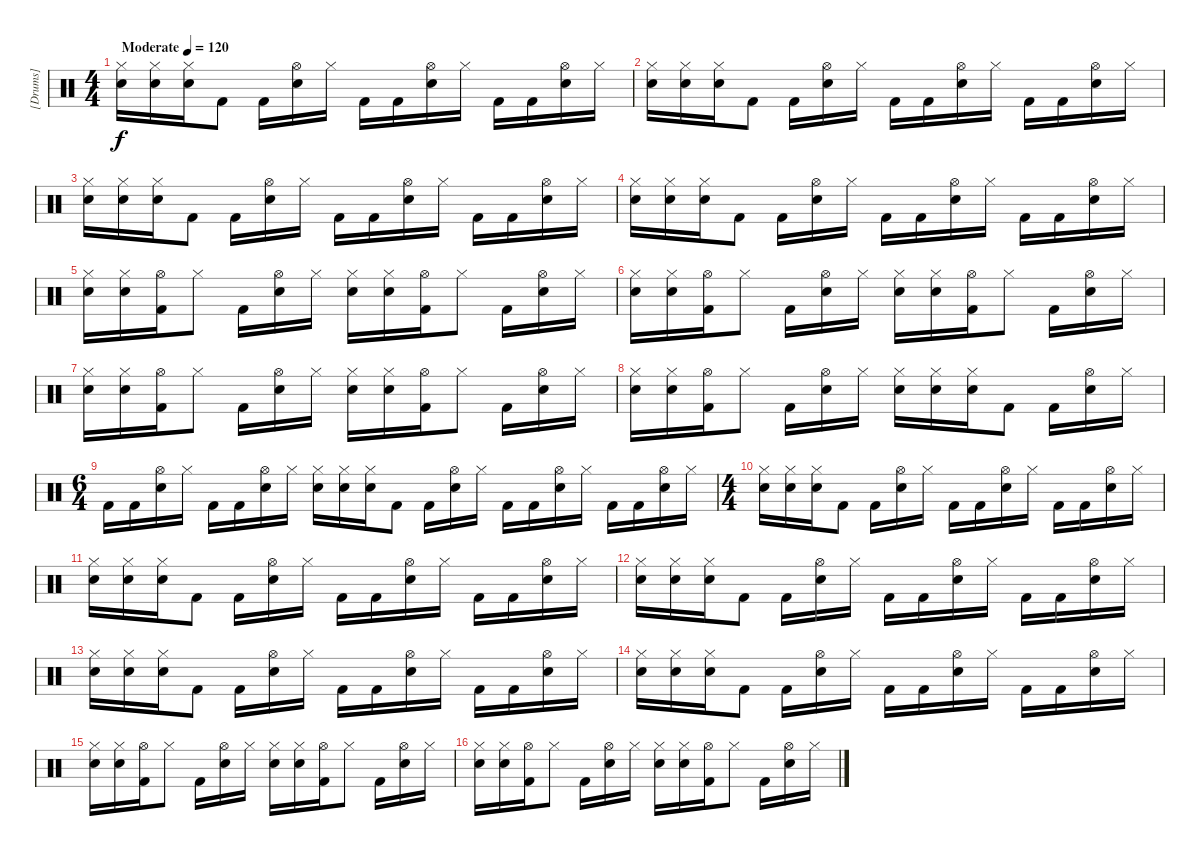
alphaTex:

\track ("[Drums]" "[Drums]") {instrument percussion}
\staff {score}
\articulation defaults
\ts (4 4)
\tempo (120 "Moderate")
\clef neutral
\ks c
("Hi-Hat (closed)" "Snare (hit) 2").16{dy f} ("Hi-Hat (closed)" "Snare (hit) 2").16 ("Hi-Hat (closed)" "Snare (hit) 2").16 "Kick (hit) 2".8 "Kick (hit) 2".16 ("Hi-Hat (open)" "Electric Snare (hit)").16 "Hi-Hat (closed)".16 "Kick (hit) 2".16 "Kick (hit) 2".16 ("Hi-Hat (open)" "Electric Snare (hit)").16 "Hi-Hat (closed)".16 "Kick (hit) 2".16 "Kick (hit) 2".16 ("Hi-Hat (open)" "Electric Snare (hit)").16 "Hi-Hat (closed)".16 |
("Hi-Hat (closed)" "Snare (hit) 2").16 ("Hi-Hat (closed)" "Snare (hit) 2").16 ("Hi-Hat (closed)" "Snare (hit) 2").16 "Kick (hit) 2".8 "Kick (hit) 2".16 ("Hi-Hat (open)" "Electric Snare (hit)").16 "Hi-Hat (closed)".16 "Kick (hit) 2".16 "Kick (hit) 2".16 ("Hi-Hat (open)" "Electric Snare (hit)").16 "Hi-Hat (closed)".16 "Kick (hit) 2".16 "Kick (hit) 2".16 ("Hi-Hat (open)" "Electric Snare (hit)").16 "Hi-Hat (closed)".16 |
("Hi-Hat (closed)" "Snare (hit) 2").16 ("Hi-Hat (closed)" "Snare (hit) 2").16 ("Hi-Hat (closed)" "Snare (hit) 2").16 "Kick (hit) 2".8 "Kick (hit) 2".16 ("Hi-Hat (open)" "Electric Snare (hit)").16 "Hi-Hat (closed)".16 "Kick (hit) 2".16 "Kick (hit) 2".16 ("Hi-Hat (open)" "Electric Snare (hit)").16 "Hi-Hat (closed)".16 "Kick (hit) 2".16 "Kick (hit) 2".16 ("Hi-Hat (open)" "Electric Snare (hit)").16 "Hi-Hat (closed)".16 |
("Hi-Hat (closed)" "Snare (hit) 2").16 ("Hi-Hat (closed)" "Snare (hit) 2").16 ("Hi-Hat (closed)" "Snare (hit) 2").16 "Kick (hit) 2".8 "Kick (hit) 2".16 ("Hi-Hat (open)" "Electric Snare (hit)").16 "Hi-Hat (closed)".16 "Kick (hit) 2".16 "Kick (hit) 2".16 ("Hi-Hat (open)" "Electric Snare (hit)").16 "Hi-Hat (closed)".16 "Kick (hit) 2".16 "Kick (hit) 2".16 ("Hi-Hat (open)" "Electric Snare (hit)").16 "Hi-Hat (closed)".16 |
("Hi-Hat (closed)" "Electric Snare (hit)").16 ("Hi-Hat (closed)" "Electric Snare (hit)").16 ("Hi-Hat (open)" "Kick (hit) 2").16 "Hi-Hat (closed)".8 "Kick (hit) 2".16 ("Hi-Hat (open)" "Electric Snare (hit)").16 "Hi-Hat (closed)".16 ("Hi-Hat (closed)" "Electric Snare (hit)").16 ("Hi-Hat (closed)" "Electric Snare (hit)").16 ("Hi-Hat (open)" "Kick (hit) 2").16 "Hi-Hat (closed)".8 "Kick (hit) 2".16 ("Hi-Hat (open)" "Electric Snare (hit)").16 "Hi-Hat (closed)".16 |
("Hi-Hat (closed)" "Electric Snare (hit)").16 ("Hi-Hat (closed)" "Electric Snare (hit)").16 ("Hi-Hat (open)" "Kick (hit) 2").16 "Hi-Hat (closed)".8 "Kick (hit) 2".16 ("Hi-Hat (open)" "Electric Snare (hit)").16 "Hi-Hat (closed)".16 ("Hi-Hat (closed)" "Electric Snare (hit)").16 ("Hi-Hat (closed)" "Electric Snare (hit)").16 ("Hi-Hat (open)" "Kick (hit) 2").16 "Hi-Hat (closed)".8 "Kick (hit) 2".16 ("Hi-Hat (open)" "Electric Snare (hit)").16 "Hi-Hat (closed)".16 |
("Hi-Hat (closed)" "Electric Snare (hit)").16 ("Hi-Hat (closed)" "Electric Snare (hit)").16 ("Hi-Hat (open)" "Kick (hit) 2").16 "Hi-Hat (closed)".8 "Kick (hit) 2".16 ("Hi-Hat (open)" "Electric Snare (hit)").16 "Hi-Hat (closed)".16 ("Hi-Hat (closed)" "Electric Snare (hit)").16 ("Hi-Hat (closed)" "Electric Snare (hit)").16 ("Hi-Hat (open)" "Kick (hit) 2").16 "Hi-Hat (closed)".8 "Kick (hit) 2".16 ("Hi-Hat (open)" "Electric Snare (hit)").16 "Hi-Hat (closed)".16 |
("Hi-Hat (closed)" "Electric Snare (hit)").16 ("Hi-Hat (closed)" "Electric Snare (hit)").16 ("Hi-Hat (open)" "Kick (hit) 2").16 "Hi-Hat (closed)".8 "Kick (hit) 2".16 ("Hi-Hat (open)" "Electric Snare (hit)").16 "Hi-Hat (closed)".16 ("Hi-Hat (closed)" "Snare (hit) 2").16 ("Hi-Hat (closed)" "Snare (hit) 2").16 ("Hi-Hat (closed)" "Snare (hit) 2").16 "Kick (hit) 2".8 "Kick (hit) 2".16 ("Hi-Hat (open)" "Electric Snare (hit)").16 "Hi-Hat (closed)".16 |
\ts (6 4)
"Kick (hit) 2".16 "Kick (hit) 2".16 ("Hi-Hat (open)" "Electric Snare (hit)").16 "Hi-Hat (closed)".16 "Kick (hit) 2".16 "Kick (hit) 2".16 ("Hi-Hat (open)" "Electric Snare (hit)").16 "Hi-Hat (closed)".16 ("Hi-Hat (closed)" "Snare (hit) 2").16 ("Hi-Hat (closed)" "Snare (hit) 2").16 ("Hi-Hat (closed)" "Snare (hit) 2").16 "Kick (hit) 2".8 "Kick (hit) 2".16 ("Hi-Hat (open)" "Electric Snare (hit)").16 "Hi-Hat (closed)".16 "Kick (hit) 2".16 "Kick (hit) 2".16 ("Hi-Hat (open)" "Electric Snare (hit)").16 "Hi-Hat (closed)".16 "Kick (hit) 2".16 "Kick (hit) 2".16 ("Hi-Hat (open)" "Electric Snare (hit)").16 "Hi-Hat (closed)".16 |
\ts (4 4)
("Hi-Hat (closed)" "Snare (hit) 2").16 ("Hi-Hat (closed)" "Snare (hit) 2").16 ("Hi-Hat (closed)" "Snare (hit) 2").16 "Kick (hit) 2".8 "Kick (hit) 2".16 ("Hi-Hat (open)" "Electric Snare (hit)").16 "Hi-Hat (closed)".16 "Kick (hit) 2".16 "Kick (hit) 2".16 ("Hi-Hat (open)" "Electric Snare (hit)").16 "Hi-Hat (closed)".16 "Kick (hit) 2".16 "Kick (hit) 2".16 ("Hi-Hat (open)" "Electric Snare (hit)").16 "Hi-Hat (closed)".16 |
("Hi-Hat (closed)" "Snare (hit) 2").16 ("Hi-Hat (closed)" "Snare (hit) 2").16 ("Hi-Hat (closed)" "Snare (hit) 2").16 "Kick (hit) 2".8 "Kick (hit) 2".16 ("Hi-Hat (open)" "Electric Snare (hit)").16 "Hi-Hat (closed)".16 "Kick (hit) 2".16 "Kick (hit) 2".16 ("Hi-Hat (open)" "Electric Snare (hit)").16 "Hi-Hat (closed)".16 "Kick (hit) 2".16 "Kick (hit) 2".16 ("Hi-Hat (open)" "Electric Snare (hit)").16 "Hi-Hat (closed)".16 |
("Hi-Hat (closed)" "Snare (hit) 2").16 ("Hi-Hat (closed)" "Snare (hit) 2").16 ("Hi-Hat (closed)" "Snare (hit) 2").16 "Kick (hit) 2".8 "Kick (hit) 2".16 ("Hi-Hat (open)" "Electric Snare (hit)").16 "Hi-Hat (closed)".16 "Kick (hit) 2".16 "Kick (hit) 2".16 ("Hi-Hat (open)" "Electric Snare (hit)").16 "Hi-Hat (closed)".16 "Kick (hit) 2".16 "Kick (hit) 2".16 ("Hi-Hat (open)" "Electric Snare (hit)").16 "Hi-Hat (closed)".16 |
("Hi-Hat (closed)" "Snare (hit) 2").16 ("Hi-Hat (closed)" "Snare (hit) 2").16 ("Hi-Hat (closed)" "Snare (hit) 2").16 "Kick (hit) 2".8 "Kick (hit) 2".16 ("Hi-Hat (open)" "Electric Snare (hit)").16 "Hi-Hat (closed)".16 "Kick (hit) 2".16 "Kick (hit) 2".16 ("Hi-Hat (open)" "Electric Snare (hit)").16 "Hi-Hat (closed)".16 "Kick (hit) 2".16 "Kick (hit) 2".16 ("Hi-Hat (open)" "Electric Snare (hit)").16 "Hi-Hat (closed)".16 |
("Hi-Hat (closed)" "Snare (hit) 2").16 ("Hi-Hat (closed)" "Snare (hit) 2").16 ("Hi-Hat (closed)" "Snare (hit) 2").16 "Kick (hit) 2".8 "Kick (hit) 2".16 ("Hi-Hat (open)" "Electric Snare (hit)").16 "Hi-Hat (closed)".16 "Kick (hit) 2".16 "Kick (hit) 2".16 ("Hi-Hat (open)" "Electric Snare (hit)").16 "Hi-Hat (closed)".16 "Kick (hit) 2".16 "Kick (hit) 2".16 ("Hi-Hat (open)" "Electric Snare (hit)").16 "Hi-Hat (closed)".16 |
("Hi-Hat (closed)" "Electric Snare (hit)").16 ("Hi-Hat (closed)" "Electric Snare (hit)").16 ("Hi-Hat (open)" "Kick (hit) 2").16 "Hi-Hat (closed)".8 "Kick (hit) 2".16 ("Hi-Hat (open)" "Electric Snare (hit)").16 "Hi-Hat (closed)".16 ("Hi-Hat (closed)" "Electric Snare (hit)").16 ("Hi-Hat (closed)" "Electric Snare (hit)").16 ("Hi-Hat (open)" "Kick (hit) 2").16 "Hi-Hat (closed)".8 "Kick (hit) 2".16 ("Hi-Hat (open)" "Electric Snare (hit)").16 "Hi-Hat (closed)".16 |
("Hi-Hat (closed)" "Electric Snare (hit)").16 ("Hi-Hat (closed)" "Electric Snare (hit)").16 ("Hi-Hat (open)" "Kick (hit) 2").16 "Hi-Hat (closed)".8 "Kick (hit) 2".16 ("Hi-Hat (open)" "Electric Snare (hit)").16 "Hi-Hat (closed)".16 ("Hi-Hat (closed)" "Electric Snare (hit)").16 ("Hi-Hat (closed)" "Electric Snare (hit)").16 ("Hi-Hat (open)" "Kick (hit) 2").16 "Hi-Hat (closed)".8 "Kick (hit) 2".16 ("Hi-Hat (open)" "Electric Snare (hit)").16 "Hi-Hat (closed)".16
